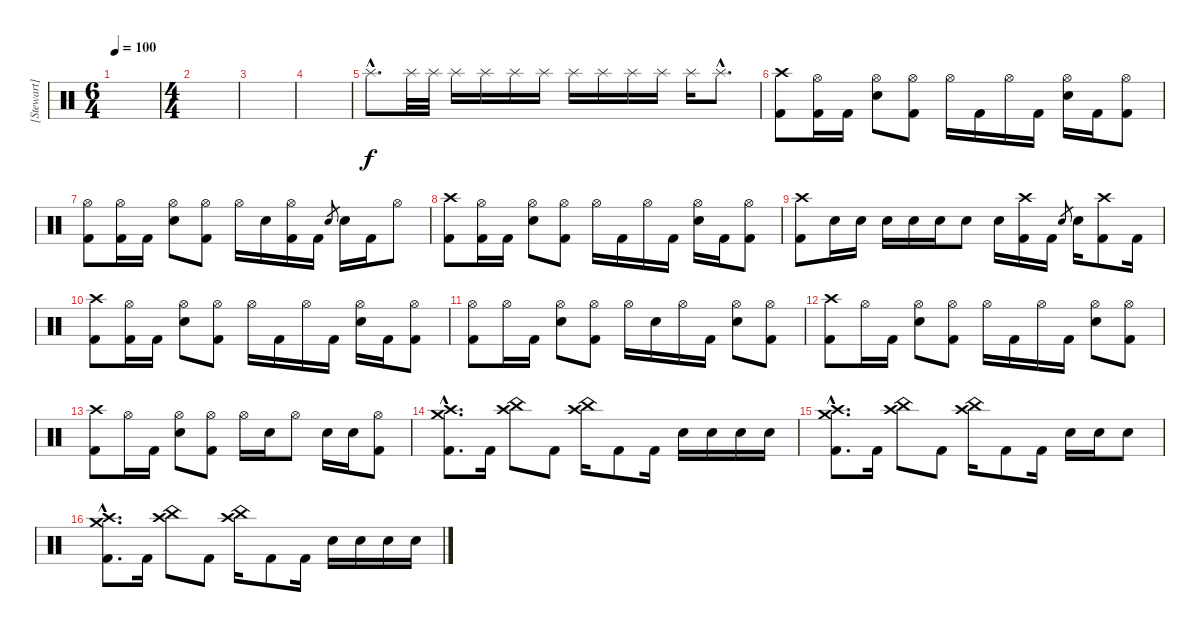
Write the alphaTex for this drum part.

\track ("[Stewart]" "[Stewart]") {instrument percussion}
\staff {score}
\articulation defaults
\ts (6 4)
\tempo 100
\clef neutral
\ks c
|
\ts (4 4)
|
|
|
"Splash (hit)"{hac}.8{d} "Splash (hit)".32 "Splash (hit)".32 "Splash (hit)".16 "Splash (hit)".16 "Splash (hit)".16 "Splash (hit)".16 "Splash (hit)".16 "Splash (hit)".16 "Splash (hit)".16 "Splash (hit)".16 "Splash (hit)".16 "Splash (hit)"{hac}.8{d} |
("Crash high (hit)" "Kick (hit) 2").8{dy f} ("Hi-Hat (open)" "Kick (hit) 2").16 "Kick (hit) 2".16 ("Hi-Hat (open)" "Electric Snare (hit)").8 ("Hi-Hat (open)" "Kick (hit) 2").8 "Hi-Hat (open)".16 "Kick (hit) 2".16 "Hi-Hat (open)".16 "Kick (hit) 2".16 ("Hi-Hat (open)" "Electric Snare (hit)").16 "Kick (hit) 2".16 ("Hi-Hat (open)" "Kick (hit) 2").8 |
("Hi-Hat (open)" "Kick (hit) 2").8 ("Hi-Hat (open)" "Kick (hit) 2").16 "Kick (hit) 2".16 ("Hi-Hat (open)" "Electric Snare (hit)").8 ("Hi-Hat (open)" "Kick (hit) 2").8 "Hi-Hat (open)".16 "Electric Snare (hit)".16 ("Hi-Hat (open)" "Kick (hit) 2").16 "Kick (hit) 2".16 "Electric Snare (hit)".8{gr} "Electric Snare (hit)".16 "Kick (hit) 2".16 "Hi-Hat (open)".8 |
("Crash high (hit)" "Kick (hit) 2").8 ("Hi-Hat (open)" "Kick (hit) 2").16 "Kick (hit) 2".16 ("Hi-Hat (open)" "Electric Snare (hit)").8 ("Hi-Hat (open)" "Kick (hit) 2").8 "Hi-Hat (open)".16 "Kick (hit) 2".16 "Hi-Hat (open)".16 "Kick (hit) 2".16 ("Hi-Hat (open)" "Electric Snare (hit)").16 "Kick (hit) 2".16 ("Hi-Hat (open)" "Kick (hit) 2").8 |
("Crash high (hit)" "Kick (hit) 2").8 "Electric Snare (hit)".16 "Electric Snare (hit)".16 "Electric Snare (hit)".16 "Electric Snare (hit)".16 "Electric Snare (hit)".16 "Electric Snare (hit)".8 "Electric Snare (hit)".16 ("Crash high (hit)" "Kick (hit) 2").16 "Kick (hit) 2".16 "Electric Snare (hit)".8{gr} "Electric Snare (hit)".16 ("Crash high (hit)" "Kick (hit) 2").8 "Kick (hit) 2".16 |
("Crash high (hit)" "Kick (hit) 2").8 ("Hi-Hat (open)" "Kick (hit) 2").16 "Kick (hit) 2".16 ("Hi-Hat (open)" "Electric Snare (hit)").8 ("Hi-Hat (open)" "Kick (hit) 2").8 "Hi-Hat (open)".16 "Kick (hit) 2".16 "Hi-Hat (open)".16 "Kick (hit) 2".16 ("Hi-Hat (open)" "Electric Snare (hit)").16 "Kick (hit) 2".16 ("Hi-Hat (open)" "Kick (hit) 2").8 |
("Hi-Hat (open)" "Kick (hit) 2").8 "Hi-Hat (open)".16 "Kick (hit) 2".16 ("Hi-Hat (open)" "Electric Snare (hit)").8 ("Hi-Hat (open)" "Kick (hit) 2").8 "Hi-Hat (open)".16 "Electric Snare (hit)".16 "Hi-Hat (open)".16 "Kick (hit) 2".16 ("Hi-Hat (open)" "Electric Snare (hit)").8 ("Hi-Hat (open)" "Kick (hit) 2").8 |
("Crash high (hit)" "Kick (hit) 2").8 "Hi-Hat (open)".16 "Kick (hit) 2".16 ("Hi-Hat (open)" "Electric Snare (hit)").8 ("Hi-Hat (open)" "Kick (hit) 2").8 "Hi-Hat (open)".16 "Kick (hit) 2".16 "Hi-Hat (open)".16 "Kick (hit) 2".16 ("Hi-Hat (open)" "Electric Snare (hit)").8 ("Hi-Hat (open)" "Kick (hit) 2").8 |
("Crash high (hit)" "Kick (hit) 2").8 "Hi-Hat (open)".16 "Kick (hit) 2".16 ("Hi-Hat (open)" "Electric Snare (hit)").8 ("Hi-Hat (open)" "Kick (hit) 2").8 "Hi-Hat (open)".16 "Electric Snare (hit)".16 "Hi-Hat (open)".8 "Electric Snare (hit)".16 "Electric Snare (hit)".16 ("Hi-Hat (open)" "Kick (hit) 2").8 |
("Crash high (hit)"{hac} "Crash medium (hit)"{hac} "Kick (hit) 2"{hac}).8{d} "Kick (hit) 2".16 ("Crash high (hit)" "China (hit)").8 "Kick (hit) 2".8 ("Crash high (hit)" "China (hit)").16 "Kick (hit) 2".8 "Kick (hit) 2".16 "Electric Snare (hit)".16 "Electric Snare (hit)".16 "Electric Snare (hit)".16 "Electric Snare (hit)".16 |
("Crash high (hit)"{hac} "Crash medium (hit)"{hac} "Kick (hit) 2"{hac}).8{d} "Kick (hit) 2".16 ("Crash high (hit)" "China (hit)").8 "Kick (hit) 2".8 ("Crash high (hit)" "China (hit)").16 "Kick (hit) 2".8 "Kick (hit) 2".16 "Electric Snare (hit)".16 "Electric Snare (hit)".16 "Electric Snare (hit)".8 |
("Crash high (hit)"{hac} "Crash medium (hit)"{hac} "Kick (hit) 2"{hac}).8{d} "Kick (hit) 2".16 ("Crash high (hit)" "China (hit)").8 "Kick (hit) 2".8 ("Crash high (hit)" "China (hit)").16 "Kick (hit) 2".8 "Kick (hit) 2".16 "Electric Snare (hit)".16 "Electric Snare (hit)".16 "Electric Snare (hit)".16 "Electric Snare (hit)".16
